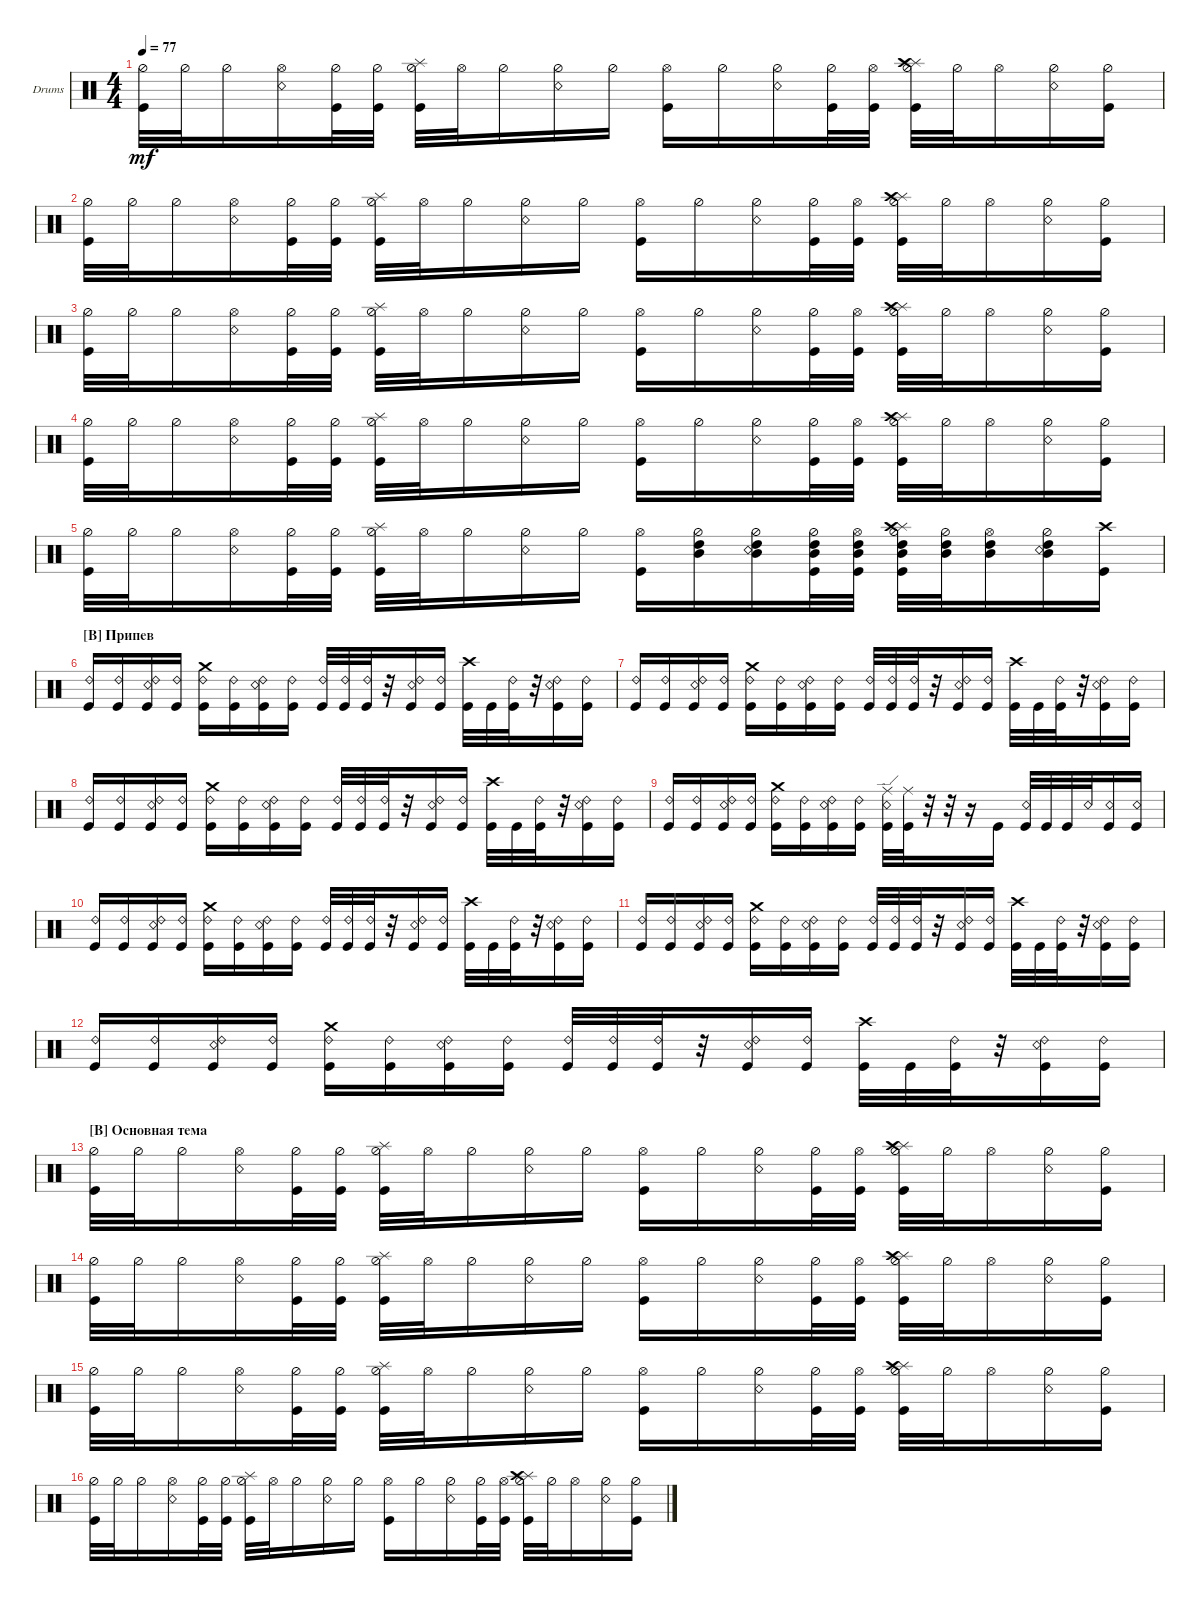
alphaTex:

\bracketExtendMode groupsimilarinstruments
\firstSystemTrackNameOrientation horizontal
\otherSystemsTrackNameOrientation horizontal
\track ("Drumkit" "Drums") {instrument percussion}
\staff {score}
\articulation defaults
\ts (4 4)
\tempo 77
\clef neutral
\ks c
("Kick (hit)" "Hi-Hat (half)").32{dy mf} "Hi-Hat (half)".32 "Hi-Hat (half)".16 ("Snare (rim shot)" "Hi-Hat (open)").16 ("Kick (hit)" "Hi-Hat (half)").32 ("Kick (hit)" "Hi-Hat (half)").32 ("Kick (hit)" "Hi-Hat (half)" "Splash (hit)").32 "Hi-Hat (open)".32 "Hi-Hat (half)".16 ("Snare (rim shot)" "Hi-Hat (half)").16 "Hi-Hat (half)".16 ("Kick (hit)" "Hi-Hat (open)").16 "Hi-Hat (half)".16 ("Snare (rim shot)" "Hi-Hat (half)").16 ("Kick (hit)" "Hi-Hat (half)").32 ("Kick (hit)" "Hi-Hat (open)").32 ("Kick (hit)" "Hi-Hat (half)" "Splash (hit)" "Crash high (hit)").32 "Hi-Hat (half)".32 "Hi-Hat (open)".16 ("Snare (rim shot)" "Hi-Hat (half)").16 ("Kick (hit)" "Hi-Hat (half)").16 |
("Kick (hit)" "Hi-Hat (half)").32 "Hi-Hat (half)".32 "Hi-Hat (half)".16 ("Snare (rim shot)" "Hi-Hat (open)").16 ("Kick (hit)" "Hi-Hat (half)").32 ("Kick (hit)" "Hi-Hat (half)").32 ("Kick (hit)" "Hi-Hat (half)" "Splash (hit)").32 "Hi-Hat (open)".32 "Hi-Hat (half)".16 ("Snare (rim shot)" "Hi-Hat (half)").16 "Hi-Hat (half)".16 ("Kick (hit)" "Hi-Hat (open)").16 "Hi-Hat (half)".16 ("Snare (rim shot)" "Hi-Hat (half)").16 ("Kick (hit)" "Hi-Hat (half)").32 ("Kick (hit)" "Hi-Hat (open)").32 ("Kick (hit)" "Hi-Hat (half)" "Splash (hit)" "Crash high (hit)").32 "Hi-Hat (half)".32 "Hi-Hat (open)".16 ("Snare (rim shot)" "Hi-Hat (half)").16 ("Kick (hit)" "Hi-Hat (half)").16 |
("Kick (hit)" "Hi-Hat (half)").32 "Hi-Hat (half)".32 "Hi-Hat (half)".16 ("Snare (rim shot)" "Hi-Hat (open)").16 ("Kick (hit)" "Hi-Hat (half)").32 ("Kick (hit)" "Hi-Hat (half)").32 ("Kick (hit)" "Hi-Hat (half)" "Splash (hit)").32 "Hi-Hat (open)".32 "Hi-Hat (half)".16 ("Snare (rim shot)" "Hi-Hat (half)").16 "Hi-Hat (half)".16 ("Kick (hit)" "Hi-Hat (open)").16 "Hi-Hat (half)".16 ("Snare (rim shot)" "Hi-Hat (half)").16 ("Kick (hit)" "Hi-Hat (half)").32 ("Kick (hit)" "Hi-Hat (open)").32 ("Kick (hit)" "Hi-Hat (half)" "Splash (hit)" "Crash high (hit)").32 "Hi-Hat (half)".32 "Hi-Hat (open)".16 ("Snare (rim shot)" "Hi-Hat (half)").16 ("Kick (hit)" "Hi-Hat (half)").16 |
("Kick (hit)" "Hi-Hat (half)").32 "Hi-Hat (half)".32 "Hi-Hat (half)".16 ("Snare (rim shot)" "Hi-Hat (open)").16 ("Kick (hit)" "Hi-Hat (half)").32 ("Kick (hit)" "Hi-Hat (half)").32 ("Kick (hit)" "Hi-Hat (half)" "Splash (hit)").32 "Hi-Hat (open)".32 "Hi-Hat (half)".16 ("Snare (rim shot)" "Hi-Hat (half)").16 "Hi-Hat (half)".16 ("Kick (hit)" "Hi-Hat (open)").16 "Hi-Hat (half)".16 ("Snare (rim shot)" "Hi-Hat (half)").16 ("Kick (hit)" "Hi-Hat (half)").32 ("Kick (hit)" "Hi-Hat (open)").32 ("Kick (hit)" "Hi-Hat (half)" "Splash (hit)" "Crash high (hit)").32 "Hi-Hat (half)".32 "Hi-Hat (open)".16 ("Snare (rim shot)" "Hi-Hat (half)").16 ("Kick (hit)" "Hi-Hat (half)").16 |
("Kick (hit)" "Hi-Hat (half)").32 "Hi-Hat (half)".32 "Hi-Hat (half)".16 ("Snare (rim shot)" "Hi-Hat (open)").16 ("Kick (hit)" "Hi-Hat (half)").32 ("Kick (hit)" "Hi-Hat (half)").32 ("Kick (hit)" "Hi-Hat (half)" "Splash (hit)").32 "Hi-Hat (open)".32 "Hi-Hat (half)".16 ("Snare (rim shot)" "Hi-Hat (half)").16 "Hi-Hat (half)".16 ("Kick (hit)" "Hi-Hat (open)").16 ("Hi-Hat (half)" "Mid Tom (hit)" "High Tom (hit)").16 ("Snare (rim shot)" "Hi-Hat (half)" "Mid Tom (hit)" "High Tom (hit)").16 ("Kick (hit)" "Hi-Hat (half)" "Mid Tom (hit)" "High Tom (hit)").32 ("Kick (hit)" "Hi-Hat (open)" "Mid Tom (hit)" "High Tom (hit)").32 ("Kick (hit)" "Hi-Hat (half)" "Splash (hit)" "Crash high (hit)" "Mid Tom (hit)" "High Tom (hit)").32 ("Hi-Hat (half)" "Mid Tom (hit)" "High Tom (hit)").32 ("Hi-Hat (open)" "Mid Tom (hit)" "High Tom (hit)").16 ("Snare (rim shot)" "Hi-Hat (half)" "Mid Tom (hit)" "High Tom (hit)").16 ("Kick (hit)" "Crash high (hit)").16 |
\section ("B" "Припев")
("Kick (hit)" "Ride (bell) 2").16 ("Kick (hit)" "Ride (bell) 2").16 ("Snare (rim shot)" "Kick (hit)" "Ride (bell) 2").16 ("Kick (hit)" "Ride (bell) 2").16 ("Kick (hit)" "Ride (bell) 2" "Crash medium (hit)").16 ("Kick (hit)" "Ride (bell) 2").16 ("Snare (rim shot)" "Kick (hit)" "Ride (bell) 2").16 ("Kick (hit)" "Ride (bell) 2").16 ("Kick (hit)" "Ride (bell) 2").32 ("Kick (hit)" "Ride (bell) 2").32 ("Kick (hit)" "Ride (bell) 2").32 r.32 ("Snare (rim shot)" "Kick (hit)" "Ride (bell) 2").16 ("Kick (hit)" "Ride (bell) 2").16 ("Kick (hit)" "Crash high (hit)").32 "Kick (hit)".32 ("Kick (hit)" "Ride (bell) 2").32 r.32 ("Snare (rim shot)" "Kick (hit)" "Ride (bell) 2").16 ("Kick (hit)" "Ride (bell) 2").16 |
("Kick (hit)" "Ride (bell) 2").16 ("Kick (hit)" "Ride (bell) 2").16 ("Snare (rim shot)" "Kick (hit)" "Ride (bell) 2").16 ("Kick (hit)" "Ride (bell) 2").16 ("Kick (hit)" "Ride (bell) 2" "Crash medium (hit)").16 ("Kick (hit)" "Ride (bell) 2").16 ("Snare (rim shot)" "Kick (hit)" "Ride (bell) 2").16 ("Kick (hit)" "Ride (bell) 2").16 ("Kick (hit)" "Ride (bell) 2").32 ("Kick (hit)" "Ride (bell) 2").32 ("Kick (hit)" "Ride (bell) 2").32 r.32 ("Snare (rim shot)" "Kick (hit)" "Ride (bell) 2").16 ("Kick (hit)" "Ride (bell) 2").16 ("Kick (hit)" "Crash high (hit)").32 "Kick (hit)".32 ("Kick (hit)" "Ride (bell) 2").32 r.32 ("Snare (rim shot)" "Kick (hit)" "Ride (bell) 2").16 ("Kick (hit)" "Ride (bell) 2").16 |
("Kick (hit)" "Ride (bell) 2").16 ("Kick (hit)" "Ride (bell) 2").16 ("Snare (rim shot)" "Kick (hit)" "Ride (bell) 2").16 ("Kick (hit)" "Ride (bell) 2").16 ("Kick (hit)" "Ride (bell) 2" "Crash medium (hit)").16 ("Kick (hit)" "Ride (bell) 2").16 ("Snare (rim shot)" "Kick (hit)" "Ride (bell) 2").16 ("Kick (hit)" "Ride (bell) 2").16 ("Kick (hit)" "Ride (bell) 2").32 ("Kick (hit)" "Ride (bell) 2").32 ("Kick (hit)" "Ride (bell) 2").32 r.32 ("Snare (rim shot)" "Kick (hit)" "Ride (bell) 2").16 ("Kick (hit)" "Ride (bell) 2").16 ("Kick (hit)" "Crash high (hit)").32 "Kick (hit)".32 ("Kick (hit)" "Ride (bell) 2").32 r.32 ("Snare (rim shot)" "Kick (hit)" "Ride (bell) 2").16 ("Kick (hit)" "Ride (bell) 2").16 |
("Kick (hit)" "Ride (bell) 2").16 ("Kick (hit)" "Ride (bell) 2").16 ("Snare (rim shot)" "Kick (hit)" "Ride (bell) 2").16 ("Kick (hit)" "Ride (bell) 2").16 ("Kick (hit)" "Ride (bell) 2" "Crash medium (hit)").16 ("Kick (hit)" "Ride (bell) 2").16 ("Snare (rim shot)" "Kick (hit)" "Ride (bell) 2").16 ("Kick (hit)" "Ride (bell) 2").16 ("Kick (hit)" "Ride (edge)" "Snare (rim shot)").32 ("Kick (hit)" "Ride (middle)").32 r.32 r.32 r.16 "Kick (hit)".16 ("Kick (hit)" "Snare (rim shot)").32 "Kick (hit)".32 "Kick (hit)".32 "Snare (rim shot)".32 ("Snare (rim shot)" "Kick (hit)").16 ("Kick (hit)" "Snare (rim shot)").16 |
("Kick (hit)" "Ride (bell) 2").16 ("Kick (hit)" "Ride (bell) 2").16 ("Snare (rim shot)" "Kick (hit)" "Ride (bell) 2").16 ("Kick (hit)" "Ride (bell) 2").16 ("Kick (hit)" "Ride (bell) 2" "Crash medium (hit)").16 ("Kick (hit)" "Ride (bell) 2").16 ("Snare (rim shot)" "Kick (hit)" "Ride (bell) 2").16 ("Kick (hit)" "Ride (bell) 2").16 ("Kick (hit)" "Ride (bell) 2").32 ("Kick (hit)" "Ride (bell) 2").32 ("Kick (hit)" "Ride (bell) 2").32 r.32 ("Snare (rim shot)" "Kick (hit)" "Ride (bell) 2").16 ("Kick (hit)" "Ride (bell) 2").16 ("Kick (hit)" "Crash high (hit)").32 "Kick (hit)".32 ("Kick (hit)" "Ride (bell) 2").32 r.32 ("Snare (rim shot)" "Kick (hit)" "Ride (bell) 2").16 ("Kick (hit)" "Ride (bell) 2").16 |
("Kick (hit)" "Ride (bell) 2").16 ("Kick (hit)" "Ride (bell) 2").16 ("Snare (rim shot)" "Kick (hit)" "Ride (bell) 2").16 ("Kick (hit)" "Ride (bell) 2").16 ("Kick (hit)" "Ride (bell) 2" "Crash medium (hit)").16 ("Kick (hit)" "Ride (bell) 2").16 ("Snare (rim shot)" "Kick (hit)" "Ride (bell) 2").16 ("Kick (hit)" "Ride (bell) 2").16 ("Kick (hit)" "Ride (bell) 2").32 ("Kick (hit)" "Ride (bell) 2").32 ("Kick (hit)" "Ride (bell) 2").32 r.32 ("Snare (rim shot)" "Kick (hit)" "Ride (bell) 2").16 ("Kick (hit)" "Ride (bell) 2").16 ("Kick (hit)" "Crash high (hit)").32 "Kick (hit)".32 ("Kick (hit)" "Ride (bell) 2").32 r.32 ("Snare (rim shot)" "Kick (hit)" "Ride (bell) 2").16 ("Kick (hit)" "Ride (bell) 2").16 |
("Kick (hit)" "Ride (bell) 2").16 ("Kick (hit)" "Ride (bell) 2").16 ("Snare (rim shot)" "Kick (hit)" "Ride (bell) 2").16 ("Kick (hit)" "Ride (bell) 2").16 ("Kick (hit)" "Ride (bell) 2" "Crash medium (hit)").16 ("Kick (hit)" "Ride (bell) 2").16 ("Snare (rim shot)" "Kick (hit)" "Ride (bell) 2").16 ("Kick (hit)" "Ride (bell) 2").16 ("Kick (hit)" "Ride (bell) 2").32 ("Kick (hit)" "Ride (bell) 2").32 ("Kick (hit)" "Ride (bell) 2").32 r.32 ("Snare (rim shot)" "Kick (hit)" "Ride (bell) 2").16 ("Kick (hit)" "Ride (bell) 2").16 ("Kick (hit)" "Crash high (hit)").32 "Kick (hit)".32 ("Kick (hit)" "Ride (bell) 2").32 r.32 ("Snare (rim shot)" "Kick (hit)" "Ride (bell) 2").16 ("Kick (hit)" "Ride (bell) 2").16 |
\section ("B" "Основная тема")
("Kick (hit)" "Hi-Hat (half)").32 "Hi-Hat (half)".32 "Hi-Hat (half)".16 ("Snare (rim shot)" "Hi-Hat (open)").16 ("Kick (hit)" "Hi-Hat (half)").32 ("Kick (hit)" "Hi-Hat (half)").32 ("Kick (hit)" "Hi-Hat (half)" "Splash (hit)").32 "Hi-Hat (open)".32 "Hi-Hat (half)".16 ("Snare (rim shot)" "Hi-Hat (half)").16 "Hi-Hat (half)".16 ("Kick (hit)" "Hi-Hat (open)").16 "Hi-Hat (half)".16 ("Snare (rim shot)" "Hi-Hat (half)").16 ("Kick (hit)" "Hi-Hat (half)").32 ("Kick (hit)" "Hi-Hat (open)").32 ("Kick (hit)" "Hi-Hat (half)" "Splash (hit)" "Crash high (hit)").32 "Hi-Hat (half)".32 "Hi-Hat (open)".16 ("Snare (rim shot)" "Hi-Hat (half)").16 ("Kick (hit)" "Hi-Hat (half)").16 |
("Kick (hit)" "Hi-Hat (half)").32 "Hi-Hat (half)".32 "Hi-Hat (half)".16 ("Snare (rim shot)" "Hi-Hat (open)").16 ("Kick (hit)" "Hi-Hat (half)").32 ("Kick (hit)" "Hi-Hat (half)").32 ("Kick (hit)" "Hi-Hat (half)" "Splash (hit)").32 "Hi-Hat (open)".32 "Hi-Hat (half)".16 ("Snare (rim shot)" "Hi-Hat (half)").16 "Hi-Hat (half)".16 ("Kick (hit)" "Hi-Hat (open)").16 "Hi-Hat (half)".16 ("Snare (rim shot)" "Hi-Hat (half)").16 ("Kick (hit)" "Hi-Hat (half)").32 ("Kick (hit)" "Hi-Hat (open)").32 ("Kick (hit)" "Hi-Hat (half)" "Splash (hit)" "Crash high (hit)").32 "Hi-Hat (half)".32 "Hi-Hat (open)".16 ("Snare (rim shot)" "Hi-Hat (half)").16 ("Kick (hit)" "Hi-Hat (half)").16 |
("Kick (hit)" "Hi-Hat (half)").32 "Hi-Hat (half)".32 "Hi-Hat (half)".16 ("Snare (rim shot)" "Hi-Hat (open)").16 ("Kick (hit)" "Hi-Hat (half)").32 ("Kick (hit)" "Hi-Hat (half)").32 ("Kick (hit)" "Hi-Hat (half)" "Splash (hit)").32 "Hi-Hat (open)".32 "Hi-Hat (half)".16 ("Snare (rim shot)" "Hi-Hat (half)").16 "Hi-Hat (half)".16 ("Kick (hit)" "Hi-Hat (open)").16 "Hi-Hat (half)".16 ("Snare (rim shot)" "Hi-Hat (half)").16 ("Kick (hit)" "Hi-Hat (half)").32 ("Kick (hit)" "Hi-Hat (open)").32 ("Kick (hit)" "Hi-Hat (half)" "Splash (hit)" "Crash high (hit)").32 "Hi-Hat (half)".32 "Hi-Hat (open)".16 ("Snare (rim shot)" "Hi-Hat (half)").16 ("Kick (hit)" "Hi-Hat (half)").16 |
("Kick (hit)" "Hi-Hat (half)").32 "Hi-Hat (half)".32 "Hi-Hat (half)".16 ("Snare (rim shot)" "Hi-Hat (open)").16 ("Kick (hit)" "Hi-Hat (half)").32 ("Kick (hit)" "Hi-Hat (half)").32 ("Kick (hit)" "Hi-Hat (half)" "Splash (hit)").32 "Hi-Hat (open)".32 "Hi-Hat (half)".16 ("Snare (rim shot)" "Hi-Hat (half)").16 "Hi-Hat (half)".16 ("Kick (hit)" "Hi-Hat (open)").16 "Hi-Hat (half)".16 ("Snare (rim shot)" "Hi-Hat (half)").16 ("Kick (hit)" "Hi-Hat (half)").32 ("Kick (hit)" "Hi-Hat (open)").32 ("Kick (hit)" "Hi-Hat (half)" "Splash (hit)" "Crash high (hit)").32 "Hi-Hat (half)".32 "Hi-Hat (open)".16 ("Snare (rim shot)" "Hi-Hat (half)").16 ("Kick (hit)" "Hi-Hat (half)").16
